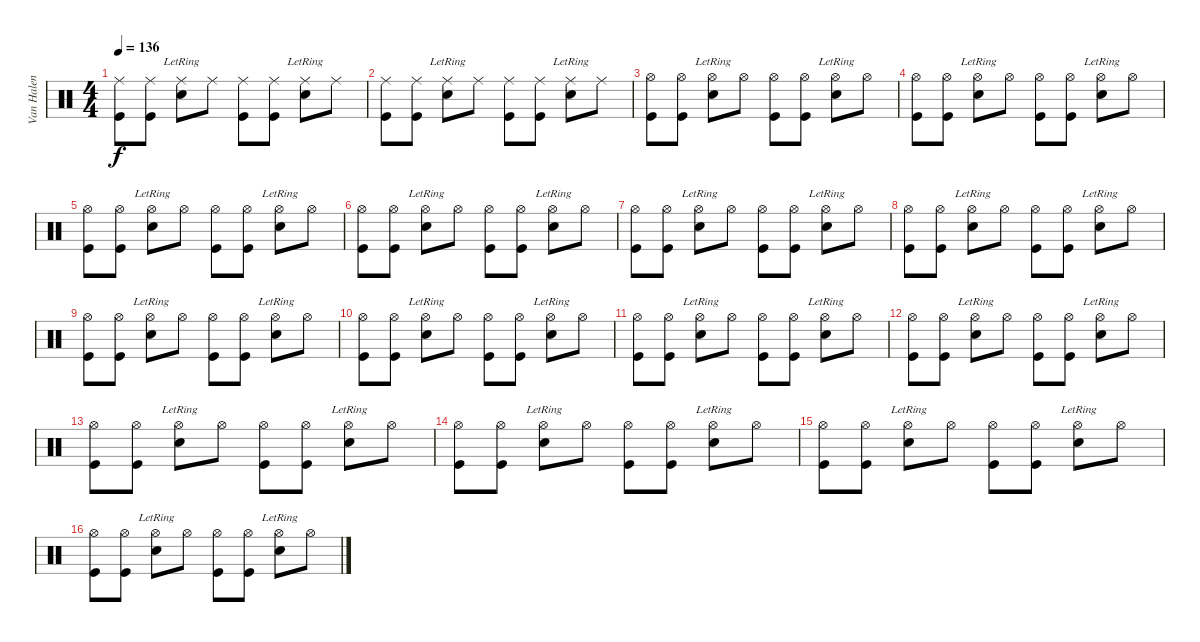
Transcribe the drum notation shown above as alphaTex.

\track ("Van Halen" "Van Halen") {instrument percussion}
\staff {score}
\articulation defaults
\ts (4 4)
\tempo 136
\clef neutral
\ks c
("Kick (hit)" "Ride (middle)").8{dy f} ("Kick (hit)" "Ride (middle)").8 ("Snare (hit) 2"{lr} "Ride (middle)").8 "Ride (middle)".8 ("Kick (hit)" "Ride (middle)").8 ("Kick (hit)" "Ride (middle)").8 ("Snare (hit) 2"{lr} "Ride (middle)").8 "Ride (middle)".8 |
("Kick (hit)" "Ride (middle)").8 ("Kick (hit)" "Ride (middle)").8 ("Snare (hit) 2"{lr} "Ride (middle)").8 "Ride (middle)".8 ("Kick (hit)" "Ride (middle)").8 ("Kick (hit)" "Ride (middle)").8 ("Snare (hit) 2"{lr} "Ride (middle)").8 "Ride (middle)".8 |
("Kick (hit)" "Hi-Hat (open)").8 ("Kick (hit)" "Hi-Hat (open)").8 ("Snare (hit) 2"{lr} "Hi-Hat (open)").8 "Hi-Hat (open)".8 ("Kick (hit)" "Hi-Hat (open)").8 ("Kick (hit)" "Hi-Hat (open)").8 ("Snare (hit) 2"{lr} "Hi-Hat (open)").8 "Hi-Hat (open)".8 |
("Kick (hit)" "Hi-Hat (open)").8 ("Kick (hit)" "Hi-Hat (open)").8 ("Snare (hit) 2"{lr} "Hi-Hat (open)").8 "Hi-Hat (open)".8 ("Kick (hit)" "Hi-Hat (open)").8 ("Kick (hit)" "Hi-Hat (open)").8 ("Snare (hit) 2"{lr} "Hi-Hat (open)").8 "Hi-Hat (open)".8 |
("Kick (hit)" "Hi-Hat (open)").8 ("Kick (hit)" "Hi-Hat (open)").8 ("Snare (hit) 2"{lr} "Hi-Hat (open)").8 "Hi-Hat (open)".8 ("Kick (hit)" "Hi-Hat (open)").8 ("Kick (hit)" "Hi-Hat (open)").8 ("Snare (hit) 2"{lr} "Hi-Hat (open)").8 "Hi-Hat (open)".8 |
("Kick (hit)" "Hi-Hat (open)").8 ("Kick (hit)" "Hi-Hat (open)").8 ("Snare (hit) 2"{lr} "Hi-Hat (open)").8 "Hi-Hat (open)".8 ("Kick (hit)" "Hi-Hat (open)").8 ("Kick (hit)" "Hi-Hat (open)").8 ("Snare (hit) 2"{lr} "Hi-Hat (open)").8 "Hi-Hat (open)".8 |
("Kick (hit)" "Hi-Hat (open)").8 ("Kick (hit)" "Hi-Hat (open)").8 ("Snare (hit) 2"{lr} "Hi-Hat (open)").8 "Hi-Hat (open)".8 ("Kick (hit)" "Hi-Hat (open)").8 ("Kick (hit)" "Hi-Hat (open)").8 ("Snare (hit) 2"{lr} "Hi-Hat (open)").8 "Hi-Hat (open)".8 |
("Kick (hit)" "Hi-Hat (open)").8 ("Kick (hit)" "Hi-Hat (open)").8 ("Snare (hit) 2"{lr} "Hi-Hat (open)").8 "Hi-Hat (open)".8 ("Kick (hit)" "Hi-Hat (open)").8 ("Kick (hit)" "Hi-Hat (open)").8 ("Snare (hit) 2"{lr} "Hi-Hat (open)").8 "Hi-Hat (open)".8 |
("Kick (hit)" "Hi-Hat (open)").8 ("Kick (hit)" "Hi-Hat (open)").8 ("Snare (hit) 2"{lr} "Hi-Hat (open)").8 "Hi-Hat (open)".8 ("Kick (hit)" "Hi-Hat (open)").8 ("Kick (hit)" "Hi-Hat (open)").8 ("Snare (hit) 2"{lr} "Hi-Hat (open)").8 "Hi-Hat (open)".8 |
("Kick (hit)" "Hi-Hat (open)").8 ("Kick (hit)" "Hi-Hat (open)").8 ("Snare (hit) 2"{lr} "Hi-Hat (open)").8 "Hi-Hat (open)".8 ("Kick (hit)" "Hi-Hat (open)").8 ("Kick (hit)" "Hi-Hat (open)").8 ("Snare (hit) 2"{lr} "Hi-Hat (open)").8 "Hi-Hat (open)".8 |
("Kick (hit)" "Hi-Hat (open)").8 ("Kick (hit)" "Hi-Hat (open)").8 ("Snare (hit) 2"{lr} "Hi-Hat (open)").8 "Hi-Hat (open)".8 ("Kick (hit)" "Hi-Hat (open)").8 ("Kick (hit)" "Hi-Hat (open)").8 ("Snare (hit) 2"{lr} "Hi-Hat (open)").8 "Hi-Hat (open)".8 |
("Kick (hit)" "Hi-Hat (open)").8 ("Kick (hit)" "Hi-Hat (open)").8 ("Snare (hit) 2"{lr} "Hi-Hat (open)").8 "Hi-Hat (open)".8 ("Kick (hit)" "Hi-Hat (open)").8 ("Kick (hit)" "Hi-Hat (open)").8 ("Snare (hit) 2"{lr} "Hi-Hat (open)").8 "Hi-Hat (open)".8 |
("Kick (hit)" "Hi-Hat (open)").8 ("Kick (hit)" "Hi-Hat (open)").8 ("Snare (hit) 2"{lr} "Hi-Hat (open)").8 "Hi-Hat (open)".8 ("Kick (hit)" "Hi-Hat (open)").8 ("Kick (hit)" "Hi-Hat (open)").8 ("Snare (hit) 2"{lr} "Hi-Hat (open)").8 "Hi-Hat (open)".8 |
("Kick (hit)" "Hi-Hat (open)").8 ("Kick (hit)" "Hi-Hat (open)").8 ("Snare (hit) 2"{lr} "Hi-Hat (open)").8 "Hi-Hat (open)".8 ("Kick (hit)" "Hi-Hat (open)").8 ("Kick (hit)" "Hi-Hat (open)").8 ("Snare (hit) 2"{lr} "Hi-Hat (open)").8 "Hi-Hat (open)".8 |
("Kick (hit)" "Hi-Hat (open)").8 ("Kick (hit)" "Hi-Hat (open)").8 ("Snare (hit) 2"{lr} "Hi-Hat (open)").8 "Hi-Hat (open)".8 ("Kick (hit)" "Hi-Hat (open)").8 ("Kick (hit)" "Hi-Hat (open)").8 ("Snare (hit) 2"{lr} "Hi-Hat (open)").8 "Hi-Hat (open)".8 |
("Kick (hit)" "Hi-Hat (open)").8 ("Kick (hit)" "Hi-Hat (open)").8 ("Snare (hit) 2"{lr} "Hi-Hat (open)").8 "Hi-Hat (open)".8 ("Kick (hit)" "Hi-Hat (open)").8 ("Kick (hit)" "Hi-Hat (open)").8 ("Snare (hit) 2"{lr} "Hi-Hat (open)").8 "Hi-Hat (open)".8
